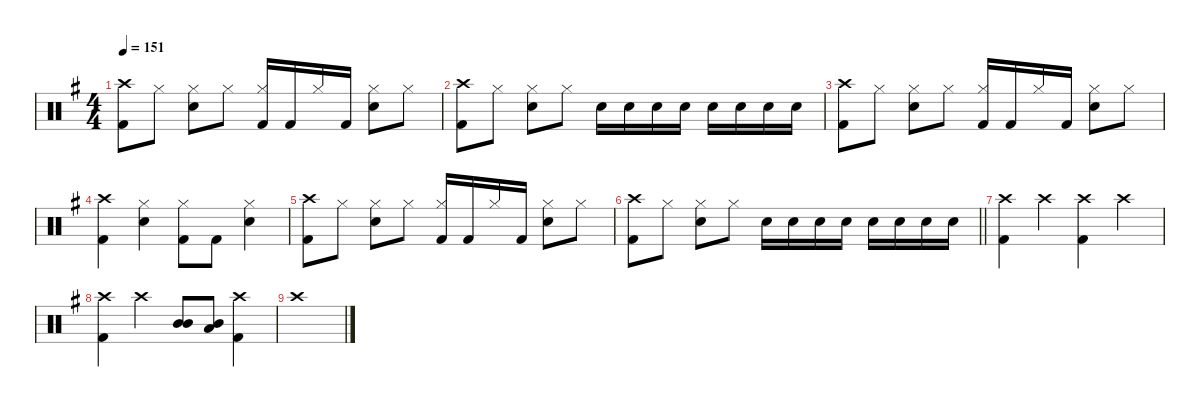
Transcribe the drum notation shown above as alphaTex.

\defaultSystemsLayout 4
\hideDynamics
\bracketExtendMode nobrackets
\singleTrackTrackNamePolicy hidden
\multiTrackTrackNamePolicy hidden
\otherSystemsTrackNameOrientation horizontal
\track ("Lars Ulrich" "drm.") {instrument percussion}
\staff {score}
\articulation defaults
\ts (4 4)
\tempo 151
\clef neutral
\ks eminor
("Crash high (hit)"{acc forcenatural} "Kick (hit) 2"{acc forcenatural}).8{dy f beam Down} "Hi-Hat (closed)"{acc forcenatural}.8{beam Down} ("Hi-Hat (closed)"{acc forcenatural} "Snare (hit) 2"{acc forcenatural}).8{beam Down} "Hi-Hat (closed)"{acc forcenatural}.8{beam Down} ("Hi-Hat (closed)"{acc forcenatural} "Kick (hit) 2"{acc forcenatural}).16{beam Up} "Kick (hit) 2"{acc forcenatural}.16{beam Up} "Hi-Hat (closed)"{acc forcenatural}.16{beam Up} "Kick (hit) 2"{acc forcenatural}.16{beam Up} ("Hi-Hat (closed)"{acc forcenatural} "Snare (hit) 2"{acc forcenatural}).8{beam Down} "Hi-Hat (closed)"{acc forcenatural}.8{beam Down} |
("Crash high (hit)"{acc forcenatural} "Kick (hit) 2"{acc forcenatural}).8{beam Down} "Hi-Hat (closed)"{acc forcenatural}.8{beam Down} ("Hi-Hat (closed)"{acc forcenatural} "Snare (hit) 2"{acc forcenatural}).8{beam Down} "Hi-Hat (closed)"{acc forcenatural}.8{beam Down} "Snare (hit) 2"{acc forcenatural}.16{beam Down} "Snare (hit) 2"{acc forcenatural}.16{beam Down} "Snare (hit) 2"{acc forcenatural}.16{beam Down} "Snare (hit) 2"{acc forcenatural}.16{beam Down} "Snare (hit) 2"{acc forcenatural}.16{beam Down} "Snare (hit) 2"{acc forcenatural}.16{beam Down} "Snare (hit) 2"{acc forcenatural}.16{beam Down} "Snare (hit) 2"{acc forcenatural}.16{beam Down} |
("Crash high (hit)"{acc forcenatural} "Kick (hit) 2"{acc forcenatural}).8{beam Down} "Hi-Hat (closed)"{acc forcenatural}.8{beam Down} ("Hi-Hat (closed)"{acc forcenatural} "Snare (hit) 2"{acc forcenatural}).8{beam Down} "Hi-Hat (closed)"{acc forcenatural}.8{beam Down} ("Hi-Hat (closed)"{acc forcenatural} "Kick (hit) 2"{acc forcenatural}).16{beam Up} "Kick (hit) 2"{acc forcenatural}.16{beam Up} "Hi-Hat (closed)"{acc forcenatural}.16{beam Up} "Kick (hit) 2"{acc forcenatural}.16{beam Up} ("Hi-Hat (closed)"{acc forcenatural} "Snare (hit) 2"{acc forcenatural}).8{beam Down} "Hi-Hat (closed)"{acc forcenatural}.8{beam Down} |
("Crash high (hit)"{acc forcenatural} "Kick (hit) 2"{acc forcenatural}).4{beam Down} ("Hi-Hat (closed)"{acc forcenatural} "Snare (hit) 2"{acc forcenatural}).4{beam Down} ("Hi-Hat (closed)"{acc forcenatural} "Kick (hit) 2"{acc forcenatural}).8{beam Down} "Kick (hit) 2"{acc forcenatural}.8{beam Down} ("Hi-Hat (closed)"{acc forcenatural} "Snare (hit) 2"{acc forcenatural}).4{beam Down} |
("Crash high (hit)"{acc forcenatural} "Kick (hit) 2"{acc forcenatural}).8{beam Down} "Hi-Hat (closed)"{acc forcenatural}.8{beam Down} ("Hi-Hat (closed)"{acc forcenatural} "Snare (hit) 2"{acc forcenatural}).8{beam Down} "Hi-Hat (closed)"{acc forcenatural}.8{beam Down} ("Hi-Hat (closed)"{acc forcenatural} "Kick (hit) 2"{acc forcenatural}).16{beam Up} "Kick (hit) 2"{acc forcenatural}.16{beam Up} "Hi-Hat (closed)"{acc forcenatural}.16{beam Up} "Kick (hit) 2"{acc forcenatural}.16{beam Up} ("Hi-Hat (closed)"{acc forcenatural} "Snare (hit) 2"{acc forcenatural}).8{beam Down} "Hi-Hat (closed)"{acc forcenatural}.8{beam Down} |
\barLineRight lightlight
("Crash high (hit)"{acc forcenatural} "Kick (hit) 2"{acc forcenatural}).8{beam Down} "Hi-Hat (closed)"{acc forcenatural}.8{beam Down} ("Hi-Hat (closed)"{acc forcenatural} "Snare (hit) 2"{acc forcenatural}).8{beam Down} "Hi-Hat (closed)"{acc forcenatural}.8{beam Down} "Snare (hit) 2"{acc forcenatural}.16{beam Down} "Snare (hit) 2"{acc forcenatural}.16{beam Down} "Snare (hit) 2"{acc forcenatural}.16{beam Down} "Snare (hit) 2"{acc forcenatural}.16{beam Down} "Snare (hit) 2"{acc forcenatural}.16{beam Down} "Snare (hit) 2"{acc forcenatural}.16{beam Down} "Snare (hit) 2"{acc forcenatural}.16{beam Down} "Snare (hit) 2"{acc forcenatural}.16{beam Down} |
("Crash high (hit)"{acc forcenatural} "Kick (hit) 2"{acc forcenatural}).4{beam Down} "Crash high (hit)"{acc forcenatural}.4{beam Down} ("Crash high (hit)"{acc forcenatural} "Kick (hit) 2"{acc forcenatural}).4{beam Down} "Crash high (hit)"{acc forcenatural}.4{beam Down} |
("Crash high (hit)"{acc forcenatural} "Kick (hit) 2"{acc forcenatural}).4{beam Down} "Crash high (hit)"{acc forcenatural}.4{beam Down} ("Mid Tom (hit)"{acc forcenatural} "Mid Tom (hit)"{acc forcenatural}).8{beam Up} ("Mid Tom (hit)"{acc forcenatural} "Low Tom (hit)"{acc forcenatural}).8{beam Up} ("Crash high (hit)"{acc forcenatural} "Kick (hit) 2"{acc forcenatural}).4{beam Down} |
"Crash high (hit)"{acc forcenatural}.1{beam Down}
